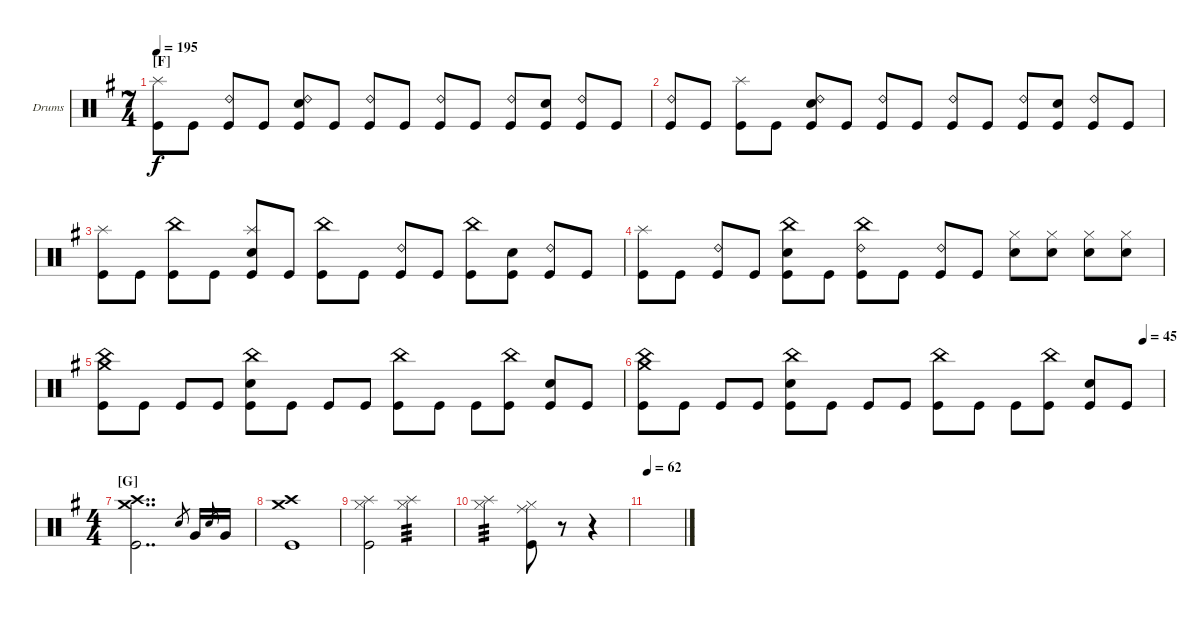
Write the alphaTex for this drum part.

\defaultSystemsLayout 4
\bracketExtendMode groupsimilarinstruments
\firstSystemTrackNameOrientation horizontal
\otherSystemsTrackNameOrientation horizontal
\track ("Drumkit" "Drums") {instrument percussion}
\staff {score}
\articulation defaults
\ts (7 4)
\section ("F" "")
\tempo 195
\clef neutral
\ks eminor
("Kick (hit)" "Splash (hit)").8{dy f} "Kick (hit)".8 ("Kick (hit)" "Ride (bell) 2").8 "Kick (hit)".8 ("Kick (hit)" "Snare (hit) 2" "Ride (bell) 2").8 "Kick (hit)".8 ("Kick (hit)" "Ride (bell) 2").8 "Kick (hit)".8 ("Kick (hit)" "Ride (bell) 2").8 "Kick (hit)".8 ("Kick (hit)" "Ride (bell) 2").8 ("Kick (hit)" "Snare (hit) 2").8 ("Kick (hit)" "Ride (bell) 2").8 "Kick (hit)".8 |
("Kick (hit)" "Ride (bell) 2").8 "Kick (hit)".8 ("Kick (hit)" "Splash (hit)").8 "Kick (hit)".8 ("Kick (hit)" "Snare (hit) 2" "Ride (bell) 2").8 "Kick (hit)".8 ("Kick (hit)" "Ride (bell) 2").8 "Kick (hit)".8 ("Kick (hit)" "Ride (bell) 2").8 "Kick (hit)".8 ("Kick (hit)" "Ride (bell) 2").8 ("Kick (hit)" "Snare (hit) 2").8 ("Kick (hit)" "Ride (bell) 2").8 "Kick (hit)".8 |
("Kick (hit)" "Splash (hit)").8 "Kick (hit)".8 ("Kick (hit)" "China (hit)").8 "Kick (hit)".8 ("Kick (hit)" "Snare (hit) 2" "Splash (hit)").8 "Kick (hit)".8 ("Kick (hit)" "China (hit)").8 "Kick (hit)".8 ("Kick (hit)" "Ride (bell) 2").8 "Kick (hit)".8 ("Kick (hit)" "China (hit)").8 ("Kick (hit)" "Snare (hit) 2").8 ("Kick (hit)" "Ride (bell) 2").8 "Kick (hit)".8 |
("Kick (hit)" "Splash (hit)").8 "Kick (hit)".8 ("Kick (hit)" "Ride (bell) 2").8 "Kick (hit)".8 ("Kick (hit)" "Snare (hit) 2" "China (hit)").8 "Kick (hit)".8 ("Kick (hit)" "Ride (bell) 2" "China (hit)").8 "Kick (hit)".8 ("Kick (hit)" "Ride (bell) 2").8 "Kick (hit)".8 ("Hi-Hat (closed)" "Snare (hit) 2").8 ("Hi-Hat (closed)" "Snare (hit) 2").8 ("Hi-Hat (closed)" "Snare (hit) 2").8 ("Hi-Hat (closed)" "Snare (hit) 2").8 |
("Kick (hit)" "China (hit)" "Crash medium (hit)").8 "Kick (hit)".8 "Kick (hit)".8 "Kick (hit)".8 ("Kick (hit)" "China (hit)" "Snare (hit) 2").8 "Kick (hit)".8 "Kick (hit)".8 "Kick (hit)".8 ("China (hit)" "Kick (hit)").8 "Kick (hit)".8 "Kick (hit)".8 ("China (hit)" "Kick (hit)").8 ("Kick (hit)" "Snare (hit) 2").8 "Kick (hit)".8 |
\tempo (45 0.9625)
("Kick (hit)" "China (hit)" "Crash medium (hit)").8 "Kick (hit)".8 "Kick (hit)".8 "Kick (hit)".8 ("Kick (hit)" "China (hit)" "Snare (hit) 2").8 "Kick (hit)".8 "Kick (hit)".8 "Kick (hit)".8 ("China (hit)" "Kick (hit)").8 "Kick (hit)".8 "Kick (hit)".8 ("China (hit)" "Kick (hit)").8 ("Kick (hit)" "Snare (hit) 2").8 "Kick (hit)".8 |
\ts (4 4)
\section ("G" "")
("Kick (hit)" "Crash medium (hit)" "Crash high (hit)").2{dd} "Snare (hit) 2".8{gr} "Very Low Tom (hit)".16 "Snare (hit) 2".8{gr} "Very Low Tom (hit)".16 |
("Kick (hit)" "Crash medium (hit)" "Crash high (hit)").1 |
("Kick (hit)" "Hi-Hat (closed)" "Splash (hit)").2 ("Splash (hit)" "Hi-Hat (closed)").2{tp 3} |
("Hi-Hat (closed)" "Splash (hit)").2{tp 3} ("Ride (middle)" "Hi-Hat (closed)" "Kick (hit)").8 r.8 r.4 |
\tempo 62
